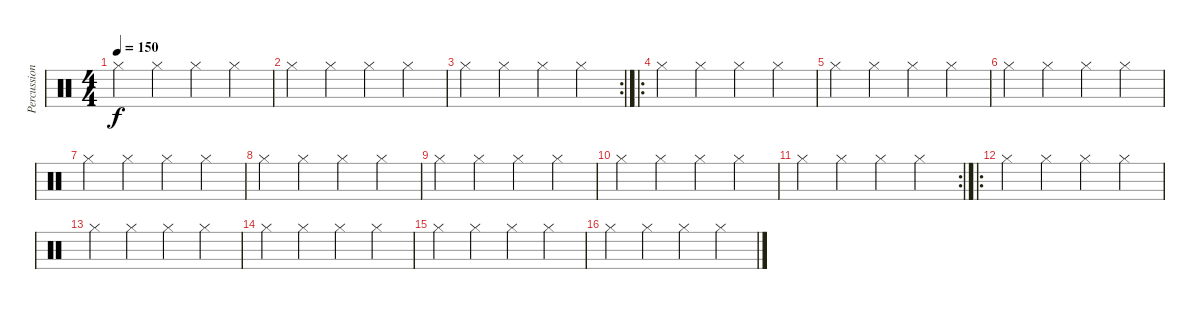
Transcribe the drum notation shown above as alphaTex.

\track ("Percussioni" "Percussion") {instrument percussion}
\staff {score}
\articulation defaults
\ts (4 4)
\tempo 150
\clef neutral
\ks c "Hi-Hat (closed)".4{dy f} "Hi-Hat (closed)".4 "Hi-Hat (closed)".4 "Hi-Hat (closed)".4
|
"Hi-Hat (closed)".4 "Hi-Hat (closed)".4 "Hi-Hat (closed)".4 "Hi-Hat (closed)".4 |
\rc 2 "Hi-Hat (closed)".4 "Hi-Hat (closed)".4 "Hi-Hat (closed)".4 "Hi-Hat (closed)".4
|
\ro "Hi-Hat (closed)".4 "Hi-Hat (closed)".4 "Hi-Hat (closed)".4 "Hi-Hat (closed)".4
|
"Hi-Hat (closed)".4 "Hi-Hat (closed)".4 "Hi-Hat (closed)".4 "Hi-Hat (closed)".4 |
"Hi-Hat (closed)".4 "Hi-Hat (closed)".4 "Hi-Hat (closed)".4 "Hi-Hat (closed)".4 |
"Hi-Hat (closed)".4 "Hi-Hat (closed)".4 "Hi-Hat (closed)".4 "Hi-Hat (closed)".4 |
"Hi-Hat (closed)".4 "Hi-Hat (closed)".4 "Hi-Hat (closed)".4 "Hi-Hat (closed)".4 |
"Hi-Hat (closed)".4 "Hi-Hat (closed)".4 "Hi-Hat (closed)".4 "Hi-Hat (closed)".4 |
"Hi-Hat (closed)".4 "Hi-Hat (closed)".4 "Hi-Hat (closed)".4 "Hi-Hat (closed)".4 |
\rc 2 "Hi-Hat (closed)".4 "Hi-Hat (closed)".4 "Hi-Hat (closed)".4 "Hi-Hat (closed)".4
|
\ro "Hi-Hat (closed)".4 "Hi-Hat (closed)".4 "Hi-Hat (closed)".4 "Hi-Hat (closed)".4
|
"Hi-Hat (closed)".4 "Hi-Hat (closed)".4 "Hi-Hat (closed)".4 "Hi-Hat (closed)".4 |
"Hi-Hat (closed)".4 "Hi-Hat (closed)".4 "Hi-Hat (closed)".4 "Hi-Hat (closed)".4 |
"Hi-Hat (closed)".4 "Hi-Hat (closed)".4 "Hi-Hat (closed)".4 "Hi-Hat (closed)".4 |
"Hi-Hat (closed)".4 "Hi-Hat (closed)".4 "Hi-Hat (closed)".4 "Hi-Hat (closed)".4
